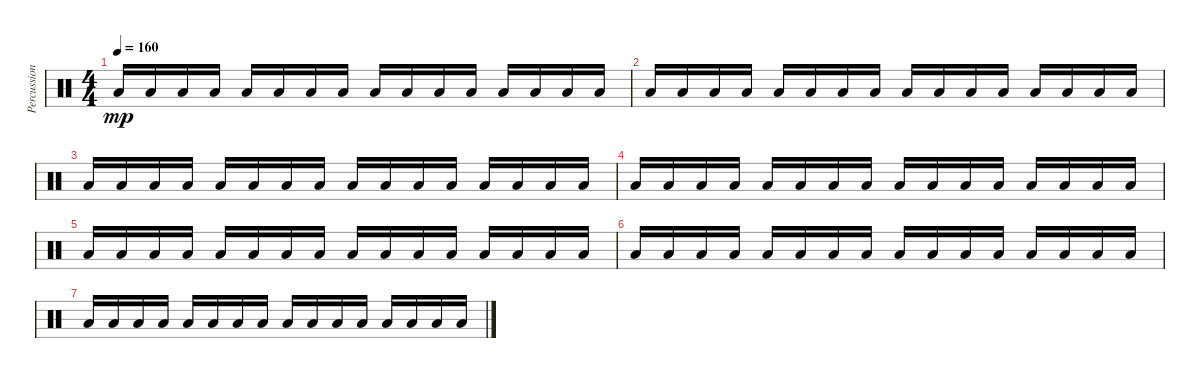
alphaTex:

\track ("Percussions" "Percussion") {instrument percussion}
\staff {score}
\articulation defaults
\ts (4 4)
\tempo 160
\clef neutral
\ks c "Low Floor Tom (hit)".16{dy mp} "Low Floor Tom (hit)".16 "Low Floor Tom (hit)".16 "Low Floor Tom (hit)".16 "Low Floor Tom (hit)".16 "Low Floor Tom (hit)".16 "Low Floor Tom (hit)".16 "Low Floor Tom (hit)".16 "Low Floor Tom (hit)".16 "Low Floor Tom (hit)".16 "Low Floor Tom (hit)".16 "Low Floor Tom (hit)".16 "Low Floor Tom (hit)".16 "Low Floor Tom (hit)".16 "Low Floor Tom (hit)".16 "Low Floor Tom (hit)".16
|
"Low Floor Tom (hit)".16 "Low Floor Tom (hit)".16 "Low Floor Tom (hit)".16 "Low Floor Tom (hit)".16 "Low Floor Tom (hit)".16 "Low Floor Tom (hit)".16 "Low Floor Tom (hit)".16 "Low Floor Tom (hit)".16 "Low Floor Tom (hit)".16 "Low Floor Tom (hit)".16 "Low Floor Tom (hit)".16 "Low Floor Tom (hit)".16 "Low Floor Tom (hit)".16 "Low Floor Tom (hit)".16 "Low Floor Tom (hit)".16 "Low Floor Tom (hit)".16 |
"Low Floor Tom (hit)".16 "Low Floor Tom (hit)".16 "Low Floor Tom (hit)".16 "Low Floor Tom (hit)".16 "Low Floor Tom (hit)".16 "Low Floor Tom (hit)".16 "Low Floor Tom (hit)".16 "Low Floor Tom (hit)".16 "Low Floor Tom (hit)".16 "Low Floor Tom (hit)".16 "Low Floor Tom (hit)".16 "Low Floor Tom (hit)".16 "Low Floor Tom (hit)".16 "Low Floor Tom (hit)".16 "Low Floor Tom (hit)".16 "Low Floor Tom (hit)".16 |
"Low Floor Tom (hit)".16 "Low Floor Tom (hit)".16 "Low Floor Tom (hit)".16 "Low Floor Tom (hit)".16 "Low Floor Tom (hit)".16 "Low Floor Tom (hit)".16 "Low Floor Tom (hit)".16 "Low Floor Tom (hit)".16 "Low Floor Tom (hit)".16 "Low Floor Tom (hit)".16 "Low Floor Tom (hit)".16 "Low Floor Tom (hit)".16 "Low Floor Tom (hit)".16 "Low Floor Tom (hit)".16 "Low Floor Tom (hit)".16 "Low Floor Tom (hit)".16 |
"Low Floor Tom (hit)".16 "Low Floor Tom (hit)".16 "Low Floor Tom (hit)".16 "Low Floor Tom (hit)".16 "Low Floor Tom (hit)".16 "Low Floor Tom (hit)".16 "Low Floor Tom (hit)".16 "Low Floor Tom (hit)".16 "Low Floor Tom (hit)".16 "Low Floor Tom (hit)".16 "Low Floor Tom (hit)".16 "Low Floor Tom (hit)".16 "Low Floor Tom (hit)".16 "Low Floor Tom (hit)".16 "Low Floor Tom (hit)".16 "Low Floor Tom (hit)".16 |
"Low Floor Tom (hit)".16 "Low Floor Tom (hit)".16 "Low Floor Tom (hit)".16 "Low Floor Tom (hit)".16 "Low Floor Tom (hit)".16 "Low Floor Tom (hit)".16 "Low Floor Tom (hit)".16 "Low Floor Tom (hit)".16 "Low Floor Tom (hit)".16 "Low Floor Tom (hit)".16 "Low Floor Tom (hit)".16 "Low Floor Tom (hit)".16 "Low Floor Tom (hit)".16 "Low Floor Tom (hit)".16 "Low Floor Tom (hit)".16 "Low Floor Tom (hit)".16 |
"Low Floor Tom (hit)".16 "Low Floor Tom (hit)".16 "Low Floor Tom (hit)".16 "Low Floor Tom (hit)".16 "Low Floor Tom (hit)".16 "Low Floor Tom (hit)".16 "Low Floor Tom (hit)".16 "Low Floor Tom (hit)".16 "Low Floor Tom (hit)".16 "Low Floor Tom (hit)".16 "Low Floor Tom (hit)".16 "Low Floor Tom (hit)".16 "Low Floor Tom (hit)".16 "Low Floor Tom (hit)".16 "Low Floor Tom (hit)".16 "Low Floor Tom (hit)".16
